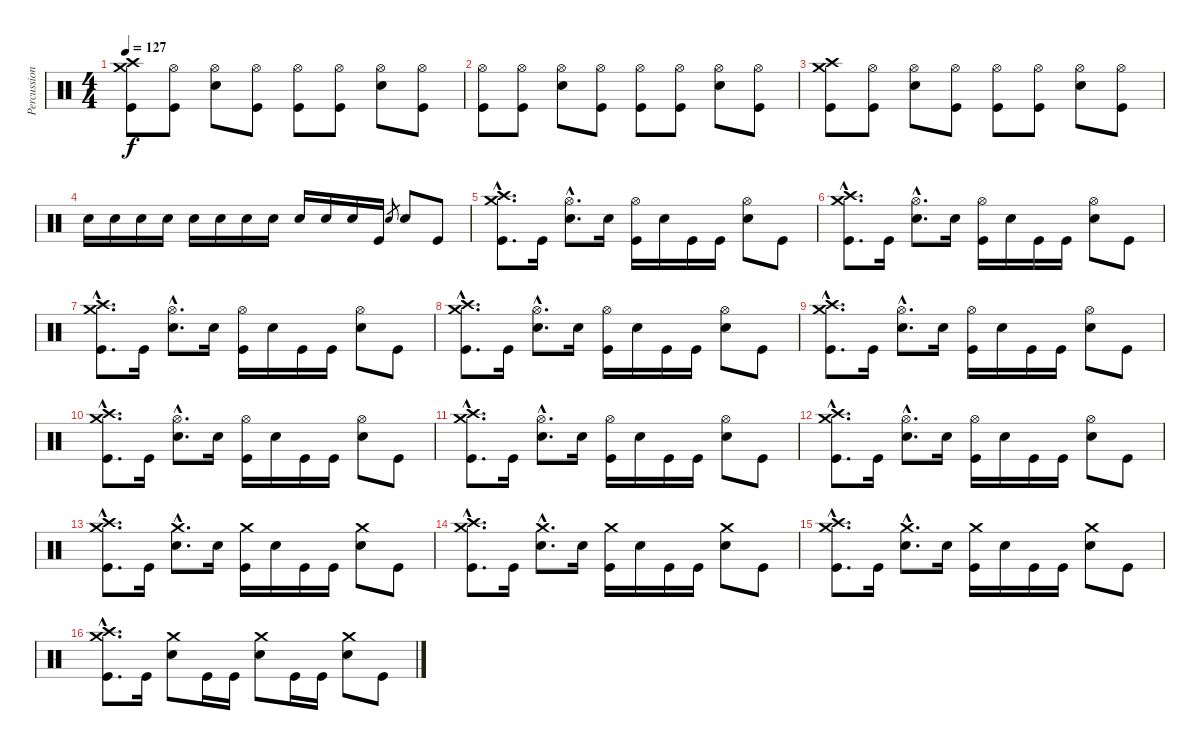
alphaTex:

\track ("Percussions" "Percussion") {instrument percussion}
\staff {score}
\articulation defaults
\ts (4 4)
\tempo 127
\clef neutral
\ks c
("Crash high (hit)" "Crash medium (hit)" "Kick (hit)").8{dy f} ("Hi-Hat (open)" "Kick (hit)").8 ("Hi-Hat (open)" "Snare (hit) 2").8 ("Hi-Hat (open)" "Kick (hit)").8 ("Hi-Hat (open)" "Kick (hit)").8 ("Hi-Hat (open)" "Kick (hit)").8 ("Hi-Hat (open)" "Snare (hit) 2").8 ("Hi-Hat (open)" "Kick (hit)").8 |
("Hi-Hat (open)" "Kick (hit)").8 ("Hi-Hat (open)" "Kick (hit)").8 ("Hi-Hat (open)" "Snare (hit) 2").8 ("Hi-Hat (open)" "Kick (hit)").8 ("Hi-Hat (open)" "Kick (hit)").8 ("Hi-Hat (open)" "Kick (hit)").8 ("Hi-Hat (open)" "Snare (hit) 2").8 ("Hi-Hat (open)" "Kick (hit)").8 |
("Crash high (hit)" "Crash medium (hit)" "Kick (hit)").8 ("Hi-Hat (open)" "Kick (hit)").8 ("Hi-Hat (open)" "Snare (hit) 2").8 ("Hi-Hat (open)" "Kick (hit)").8 ("Hi-Hat (open)" "Kick (hit)").8 ("Hi-Hat (open)" "Kick (hit)").8 ("Hi-Hat (open)" "Snare (hit) 2").8 ("Hi-Hat (open)" "Kick (hit)").8 |
"Snare (hit) 2".16 "Snare (hit) 2".16 "Snare (hit) 2".16 "Snare (hit) 2".16 "Snare (hit) 2".16 "Snare (hit) 2".16 "Snare (hit) 2".16 "Snare (hit) 2".16 "Snare (hit) 2".16 "Snare (hit) 2".16 "Snare (hit) 2".16 "Kick (hit)".16 "Snare (hit) 2".8{gr} "Snare (hit) 2".8 "Kick (hit)".8 |
("Crash high (hit)"{hac} "Crash medium (hit)"{hac} "Kick (hit)"{hac}).8{d} "Kick (hit)".16 ("Hi-Hat (open)"{hac} "Snare (hit) 2"{hac}).8{d} "Snare (hit) 2".16 ("Hi-Hat (open)" "Kick (hit)").16 "Snare (hit) 2".16 "Kick (hit)".16 "Kick (hit)".16 ("Hi-Hat (open)" "Snare (hit) 2").8 "Kick (hit)".8 |
("Crash high (hit)"{hac} "Crash medium (hit)"{hac} "Kick (hit)"{hac}).8{d} "Kick (hit)".16 ("Hi-Hat (open)"{hac} "Snare (hit) 2"{hac}).8{d} "Snare (hit) 2".16 ("Hi-Hat (open)" "Kick (hit)").16 "Snare (hit) 2".16 "Kick (hit)".16 "Kick (hit)".16 ("Hi-Hat (open)" "Snare (hit) 2").8 "Kick (hit)".8 |
("Crash high (hit)"{hac} "Crash medium (hit)"{hac} "Kick (hit)"{hac}).8{d} "Kick (hit)".16 ("Hi-Hat (open)"{hac} "Snare (hit) 2"{hac}).8{d} "Snare (hit) 2".16 ("Hi-Hat (open)" "Kick (hit)").16 "Snare (hit) 2".16 "Kick (hit)".16 "Kick (hit)".16 ("Hi-Hat (open)" "Snare (hit) 2").8 "Kick (hit)".8 |
("Crash high (hit)"{hac} "Crash medium (hit)"{hac} "Kick (hit)"{hac}).8{d} "Kick (hit)".16 ("Hi-Hat (open)"{hac} "Snare (hit) 2"{hac}).8{d} "Snare (hit) 2".16 ("Hi-Hat (open)" "Kick (hit)").16 "Snare (hit) 2".16 "Kick (hit)".16 "Kick (hit)".16 ("Hi-Hat (open)" "Snare (hit) 2").8 "Kick (hit)".8 |
("Crash high (hit)"{hac} "Crash medium (hit)"{hac} "Kick (hit)"{hac}).8{d} "Kick (hit)".16 ("Hi-Hat (open)"{hac} "Snare (hit) 2"{hac}).8{d} "Snare (hit) 2".16 ("Hi-Hat (open)" "Kick (hit)").16 "Snare (hit) 2".16 "Kick (hit)".16 "Kick (hit)".16 ("Hi-Hat (open)" "Snare (hit) 2").8 "Kick (hit)".8 |
("Crash high (hit)"{hac} "Crash medium (hit)"{hac} "Kick (hit)"{hac}).8{d} "Kick (hit)".16 ("Hi-Hat (open)"{hac} "Snare (hit) 2"{hac}).8{d} "Snare (hit) 2".16 ("Hi-Hat (open)" "Kick (hit)").16 "Snare (hit) 2".16 "Kick (hit)".16 "Kick (hit)".16 ("Hi-Hat (open)" "Snare (hit) 2").8 "Kick (hit)".8 |
("Crash high (hit)"{hac} "Crash medium (hit)"{hac} "Kick (hit)"{hac}).8{d} "Kick (hit)".16 ("Hi-Hat (open)"{hac} "Snare (hit) 2"{hac}).8{d} "Snare (hit) 2".16 ("Hi-Hat (open)" "Kick (hit)").16 "Snare (hit) 2".16 "Kick (hit)".16 "Kick (hit)".16 ("Hi-Hat (open)" "Snare (hit) 2").8 "Kick (hit)".8 |
("Crash high (hit)"{hac} "Crash medium (hit)"{hac} "Kick (hit)"{hac}).8{d} "Kick (hit)".16 ("Hi-Hat (open)"{hac} "Snare (hit) 2"{hac}).8{d} "Snare (hit) 2".16 ("Hi-Hat (open)" "Kick (hit)").16 "Snare (hit) 2".16 "Kick (hit)".16 "Kick (hit)".16 ("Hi-Hat (open)" "Snare (hit) 2").8 "Kick (hit)".8 |
("Crash high (hit)"{hac} "Crash medium (hit)"{hac} "Kick (hit)"{hac}).8{d} "Kick (hit)".16 ("Crash medium (hit)"{hac} "Snare (hit) 2"{hac}).8{d} "Snare (hit) 2".16 ("Crash medium (hit)" "Kick (hit)").16 "Snare (hit) 2".16 "Kick (hit)".16 "Kick (hit)".16 ("Crash medium (hit)" "Snare (hit) 2").8 "Kick (hit)".8 |
("Crash high (hit)"{hac} "Crash medium (hit)"{hac} "Kick (hit)"{hac}).8{d} "Kick (hit)".16 ("Crash medium (hit)"{hac} "Snare (hit) 2"{hac}).8{d} "Snare (hit) 2".16 ("Crash medium (hit)" "Kick (hit)").16 "Snare (hit) 2".16 "Kick (hit)".16 "Kick (hit)".16 ("Crash medium (hit)" "Snare (hit) 2").8 "Kick (hit)".8 |
("Crash high (hit)"{hac} "Crash medium (hit)"{hac} "Kick (hit)"{hac}).8{d} "Kick (hit)".16 ("Crash medium (hit)"{hac} "Snare (hit) 2"{hac}).8{d} "Snare (hit) 2".16 ("Crash medium (hit)" "Kick (hit)").16 "Snare (hit) 2".16 "Kick (hit)".16 "Kick (hit)".16 ("Crash medium (hit)" "Snare (hit) 2").8 "Kick (hit)".8 |
("Crash high (hit)"{hac} "Crash medium (hit)"{hac} "Kick (hit)"{hac}).8{d} "Kick (hit)".16 ("Crash medium (hit)" "Snare (hit) 2").8 "Kick (hit)".16 "Kick (hit)".16 ("Crash medium (hit)" "Snare (hit) 2").8 "Kick (hit)".16 "Kick (hit)".16 ("Crash medium (hit)" "Snare (hit) 2").8 "Kick (hit)".8
